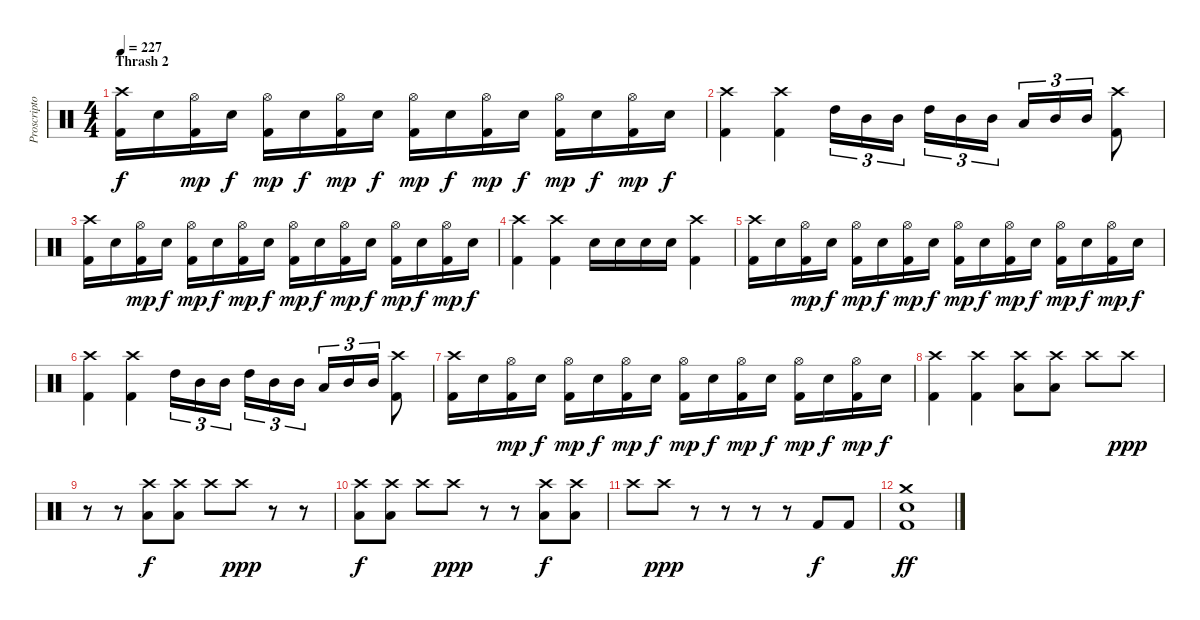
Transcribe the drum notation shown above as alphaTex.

\track ("Proscriptor (Drums)" "Proscripto") {instrument percussion}
\staff {score}
\articulation defaults
\ts (4 4)
\section ("" "Thrash 2")
\tempo 227
\clef neutral
\ks c
("Kick (hit) 2" "Crash high (hit)").16{dy f} "Electric Snare (hit)".16 ("Kick (hit) 2" "Hi-Hat (open)").16{dy mp} "Electric Snare (hit)".16{dy f} ("Kick (hit) 2" "Hi-Hat (open)").16{dy mp} "Electric Snare (hit)".16{dy f} ("Kick (hit) 2" "Hi-Hat (open)").16{dy mp} "Electric Snare (hit)".16{dy f} ("Kick (hit) 2" "Hi-Hat (open)").16{dy mp} "Electric Snare (hit)".16{dy f} ("Kick (hit) 2" "Hi-Hat (open)").16{dy mp} "Electric Snare (hit)".16{dy f} ("Kick (hit) 2" "Hi-Hat (open)").16{dy mp} "Electric Snare (hit)".16{dy f} ("Kick (hit) 2" "Hi-Hat (open)").16{dy mp} "Electric Snare (hit)".16{dy f} |
("Kick (hit) 2" "Crash high (hit)").4 ("Kick (hit) 2" "Crash high (hit)").4 "High Tom (hit)".16{tu (3 2)} "Mid Tom (hit)".16{tu (3 2)} "Mid Tom (hit)".16{tu (3 2)} "High Tom (hit)".16{tu (3 2)} "Mid Tom (hit)".16{tu (3 2)} "Mid Tom (hit)".16{tu (3 2)} "Low Tom (hit)".16{tu (3 2)} "Mid Tom (hit)".16{tu (3 2)} "Mid Tom (hit)".16{tu (3 2)} ("Kick (hit) 2" "Crash high (hit)").8 |
("Kick (hit) 2" "Crash high (hit)").16 "Electric Snare (hit)".16 ("Kick (hit) 2" "Hi-Hat (open)").16{dy mp} "Electric Snare (hit)".16{dy f} ("Kick (hit) 2" "Hi-Hat (open)").16{dy mp} "Electric Snare (hit)".16{dy f} ("Kick (hit) 2" "Hi-Hat (open)").16{dy mp} "Electric Snare (hit)".16{dy f} ("Kick (hit) 2" "Hi-Hat (open)").16{dy mp} "Electric Snare (hit)".16{dy f} ("Kick (hit) 2" "Hi-Hat (open)").16{dy mp} "Electric Snare (hit)".16{dy f} ("Kick (hit) 2" "Hi-Hat (open)").16{dy mp} "Electric Snare (hit)".16{dy f} ("Kick (hit) 2" "Hi-Hat (open)").16{dy mp} "Electric Snare (hit)".16{dy f} |
("Kick (hit) 2" "Crash high (hit)").4 ("Kick (hit) 2" "Crash high (hit)").4 "Electric Snare (hit)".16 "Electric Snare (hit)".16 "Electric Snare (hit)".16 "Electric Snare (hit)".16 ("Kick (hit) 2" "Crash high (hit)").4 |
("Kick (hit) 2" "Crash high (hit)").16 "Electric Snare (hit)".16 ("Kick (hit) 2" "Hi-Hat (open)").16{dy mp} "Electric Snare (hit)".16{dy f} ("Kick (hit) 2" "Hi-Hat (open)").16{dy mp} "Electric Snare (hit)".16{dy f} ("Kick (hit) 2" "Hi-Hat (open)").16{dy mp} "Electric Snare (hit)".16{dy f} ("Kick (hit) 2" "Hi-Hat (open)").16{dy mp} "Electric Snare (hit)".16{dy f} ("Kick (hit) 2" "Hi-Hat (open)").16{dy mp} "Electric Snare (hit)".16{dy f} ("Kick (hit) 2" "Hi-Hat (open)").16{dy mp} "Electric Snare (hit)".16{dy f} ("Kick (hit) 2" "Hi-Hat (open)").16{dy mp} "Electric Snare (hit)".16{dy f} |
("Kick (hit) 2" "Crash high (hit)").4 ("Kick (hit) 2" "Crash high (hit)").4 "High Tom (hit)".16{tu (3 2)} "Mid Tom (hit)".16{tu (3 2)} "Mid Tom (hit)".16{tu (3 2)} "High Tom (hit)".16{tu (3 2)} "Mid Tom (hit)".16{tu (3 2)} "Mid Tom (hit)".16{tu (3 2)} "Low Tom (hit)".16{tu (3 2)} "Mid Tom (hit)".16{tu (3 2)} "Mid Tom (hit)".16{tu (3 2)} ("Kick (hit) 2" "Crash high (hit)").8 |
("Kick (hit) 2" "Crash high (hit)").16 "Electric Snare (hit)".16 ("Kick (hit) 2" "Hi-Hat (open)").16{dy mp} "Electric Snare (hit)".16{dy f} ("Kick (hit) 2" "Hi-Hat (open)").16{dy mp} "Electric Snare (hit)".16{dy f} ("Kick (hit) 2" "Hi-Hat (open)").16{dy mp} "Electric Snare (hit)".16{dy f} ("Kick (hit) 2" "Hi-Hat (open)").16{dy mp} "Electric Snare (hit)".16{dy f} ("Kick (hit) 2" "Hi-Hat (open)").16{dy mp} "Electric Snare (hit)".16{dy f} ("Kick (hit) 2" "Hi-Hat (open)").16{dy mp} "Electric Snare (hit)".16{dy f} ("Kick (hit) 2" "Hi-Hat (open)").16{dy mp} "Electric Snare (hit)".16{dy f} |
("Kick (hit) 2" "Crash high (hit)").4 ("Kick (hit) 2" "Crash high (hit)").4 ("Low Tom (hit)" "Crash high (hit)").8 ("Low Tom (hit)" "Crash high (hit)").8 "Crash high (hit)".8 "Crash high (hit)".8{dy ppp} |
r.8 r.8 ("Low Tom (hit)" "Crash high (hit)").8{dy f} ("Low Tom (hit)" "Crash high (hit)").8 "Crash high (hit)".8 "Crash high (hit)".8{dy ppp} r.8 r.8 |
("Low Tom (hit)" "Crash high (hit)").8{dy f} ("Low Tom (hit)" "Crash high (hit)").8 "Crash high (hit)".8 "Crash high (hit)".8{dy ppp} r.8 r.8 ("Low Tom (hit)" "Crash high (hit)").8{dy f} ("Low Tom (hit)" "Crash high (hit)").8 |
"Crash high (hit)".8 "Crash high (hit)".8{dy ppp} r.8 r.8 r.8 r.8 "Kick (hit) 2".8{dy f} "Kick (hit) 2".8 |
("Kick (hit) 2" "Electric Snare (hit)" "Crash medium (hit)").1{dy ff}
